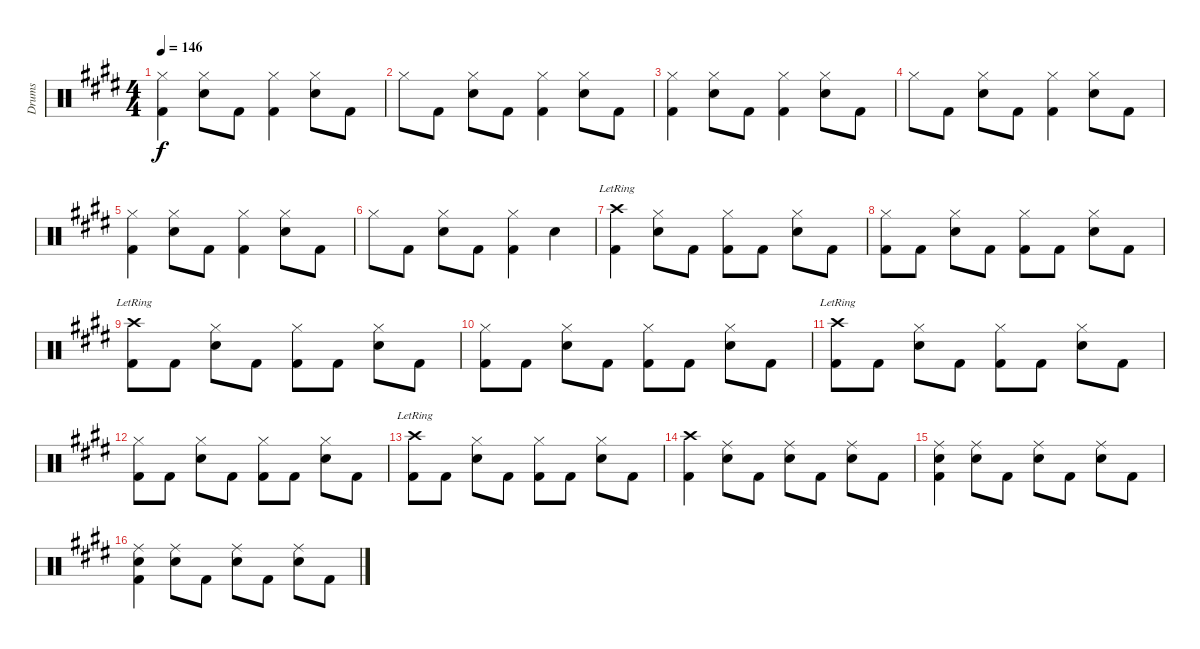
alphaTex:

\track ("Drums" "Drums") {instrument percussion}
\staff {score}
\articulation defaults
\ts (4 4)
\tempo 146
\clef neutral
\ks e
("Kick (hit) 2" "Hi-Hat (closed)").4{dy f} ("Snare (hit) 2" "Hi-Hat (closed)").8 "Kick (hit) 2".8 ("Kick (hit) 2" "Hi-Hat (closed)").4 ("Snare (hit) 2" "Hi-Hat (closed)").8 "Kick (hit) 2".8 |
"Hi-Hat (closed)".8 "Kick (hit) 2".8 ("Snare (hit) 2" "Hi-Hat (closed)").8 "Kick (hit) 2".8 ("Kick (hit) 2" "Hi-Hat (closed)").4 ("Snare (hit) 2" "Hi-Hat (closed)").8 "Kick (hit) 2".8 |
("Kick (hit) 2" "Hi-Hat (closed)").4 ("Snare (hit) 2" "Hi-Hat (closed)").8 "Kick (hit) 2".8 ("Kick (hit) 2" "Hi-Hat (closed)").4 ("Snare (hit) 2" "Hi-Hat (closed)").8 "Kick (hit) 2".8 |
"Hi-Hat (closed)".8 "Kick (hit) 2".8 ("Snare (hit) 2" "Hi-Hat (closed)").8 "Kick (hit) 2".8 ("Kick (hit) 2" "Hi-Hat (closed)").4 ("Snare (hit) 2" "Hi-Hat (closed)").8 "Kick (hit) 2".8 |
("Kick (hit) 2" "Hi-Hat (closed)").4 ("Snare (hit) 2" "Hi-Hat (closed)").8 "Kick (hit) 2".8 ("Kick (hit) 2" "Hi-Hat (closed)").4 ("Snare (hit) 2" "Hi-Hat (closed)").8 "Kick (hit) 2".8 |
"Hi-Hat (closed)".8 "Kick (hit) 2".8 ("Snare (hit) 2" "Hi-Hat (closed)").8 "Kick (hit) 2".8 ("Kick (hit) 2" "Hi-Hat (closed)").4 "Snare (hit) 2".4 |
("Kick (hit) 2" "Crash high (hit)"{lr}).4 ("Snare (hit) 2" "Hi-Hat (closed)").8 "Kick (hit) 2".8 ("Kick (hit) 2" "Hi-Hat (closed)").8 "Kick (hit) 2".8 ("Snare (hit) 2" "Hi-Hat (closed)").8 "Kick (hit) 2".8 |
("Kick (hit) 2" "Hi-Hat (closed)").8 "Kick (hit) 2".8 ("Snare (hit) 2" "Hi-Hat (closed)").8 "Kick (hit) 2".8 ("Kick (hit) 2" "Hi-Hat (closed)").8 "Kick (hit) 2".8 ("Snare (hit) 2" "Hi-Hat (closed)").8 "Kick (hit) 2".8 |
("Kick (hit) 2" "Crash high (hit)"{lr}).8 "Kick (hit) 2".8 ("Snare (hit) 2" "Hi-Hat (closed)").8 "Kick (hit) 2".8 ("Kick (hit) 2" "Hi-Hat (closed)").8 "Kick (hit) 2".8 ("Snare (hit) 2" "Hi-Hat (closed)").8 "Kick (hit) 2".8 |
("Kick (hit) 2" "Hi-Hat (closed)").8 "Kick (hit) 2".8 ("Snare (hit) 2" "Hi-Hat (closed)").8 "Kick (hit) 2".8 ("Kick (hit) 2" "Hi-Hat (closed)").8 "Kick (hit) 2".8 ("Snare (hit) 2" "Hi-Hat (closed)").8 "Kick (hit) 2".8 |
("Kick (hit) 2" "Crash high (hit)"{lr}).8 "Kick (hit) 2".8 ("Snare (hit) 2" "Hi-Hat (closed)").8 "Kick (hit) 2".8 ("Kick (hit) 2" "Hi-Hat (closed)").8 "Kick (hit) 2".8 ("Snare (hit) 2" "Hi-Hat (closed)").8 "Kick (hit) 2".8 |
("Kick (hit) 2" "Hi-Hat (closed)").8 "Kick (hit) 2".8 ("Snare (hit) 2" "Hi-Hat (closed)").8 "Kick (hit) 2".8 ("Kick (hit) 2" "Hi-Hat (closed)").8 "Kick (hit) 2".8 ("Snare (hit) 2" "Hi-Hat (closed)").8 "Kick (hit) 2".8 |
("Kick (hit) 2" "Crash high (hit)"{lr}).8 "Kick (hit) 2".8 ("Snare (hit) 2" "Hi-Hat (closed)").8 "Kick (hit) 2".8 ("Kick (hit) 2" "Hi-Hat (closed)").8 "Kick (hit) 2".8 ("Snare (hit) 2" "Hi-Hat (closed)").8 "Kick (hit) 2".8 |
("Kick (hit) 2" "Crash high (hit)").4 ("Snare (hit) 2" "Ride (middle)").8 "Kick (hit) 2".8 ("Snare (hit) 2" "Ride (middle)").8 "Kick (hit) 2".8 ("Snare (hit) 2" "Ride (middle)").8 "Kick (hit) 2".8 |
("Kick (hit) 2" "Snare (hit) 2" "Ride (middle)").4 ("Snare (hit) 2" "Ride (middle)").8 "Kick (hit) 2".8 ("Snare (hit) 2" "Ride (middle)").8 "Kick (hit) 2".8 ("Snare (hit) 2" "Ride (middle)").8 "Kick (hit) 2".8 |
("Kick (hit) 2" "Snare (hit) 2" "Ride (middle)").4 ("Snare (hit) 2" "Ride (middle)").8 "Kick (hit) 2".8 ("Snare (hit) 2" "Ride (middle)").8 "Kick (hit) 2".8 ("Snare (hit) 2" "Ride (middle)").8 "Kick (hit) 2".8
